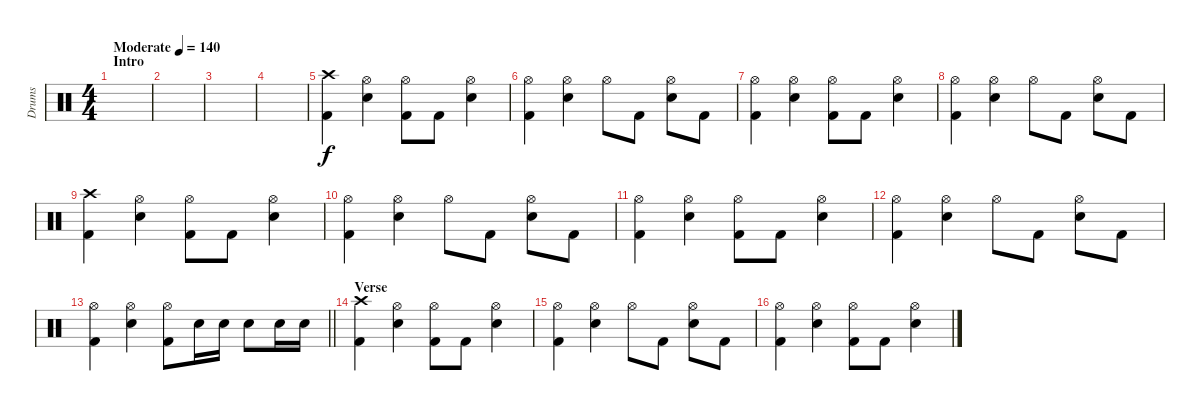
\track ("Drums" "Drums") {instrument percussion}
\staff {score}
\articulation defaults
\ts (4 4)
\section ("" "Intro ")
\tempo (140 "Moderate")
\clef neutral
\ks c
|
|
|
|
("Crash high (hit)" "Kick (hit) 2").4 ("Hi-Hat (open)" "Electric Snare (hit)").4 ("Hi-Hat (open)" "Kick (hit) 2").8 "Kick (hit) 2".8 ("Hi-Hat (open)" "Electric Snare (hit)").4 |
("Hi-Hat (open)" "Kick (hit) 2").4 ("Hi-Hat (open)" "Electric Snare (hit)").4 "Hi-Hat (open)".8 "Kick (hit) 2".8 ("Hi-Hat (open)" "Electric Snare (hit)").8 "Kick (hit) 2".8 |
("Hi-Hat (open)" "Kick (hit) 2").4 ("Hi-Hat (open)" "Electric Snare (hit)").4 ("Hi-Hat (open)" "Kick (hit) 2").8 "Kick (hit) 2".8 ("Hi-Hat (open)" "Electric Snare (hit)").4 |
("Hi-Hat (open)" "Kick (hit) 2").4 ("Hi-Hat (open)" "Electric Snare (hit)").4 "Hi-Hat (open)".8 "Kick (hit) 2".8 ("Hi-Hat (open)" "Electric Snare (hit)").8 "Kick (hit) 2".8 |
("Crash high (hit)" "Kick (hit) 2").4 ("Hi-Hat (open)" "Electric Snare (hit)").4 ("Hi-Hat (open)" "Kick (hit) 2").8 "Kick (hit) 2".8 ("Hi-Hat (open)" "Electric Snare (hit)").4 |
("Hi-Hat (open)" "Kick (hit) 2").4 ("Hi-Hat (open)" "Electric Snare (hit)").4 "Hi-Hat (open)".8 "Kick (hit) 2".8 ("Hi-Hat (open)" "Electric Snare (hit)").8 "Kick (hit) 2".8 |
("Hi-Hat (open)" "Kick (hit) 2").4 ("Hi-Hat (open)" "Electric Snare (hit)").4 ("Hi-Hat (open)" "Kick (hit) 2").8 "Kick (hit) 2".8 ("Hi-Hat (open)" "Electric Snare (hit)").4 |
("Hi-Hat (open)" "Kick (hit) 2").4 ("Hi-Hat (open)" "Electric Snare (hit)").4 "Hi-Hat (open)".8 "Kick (hit) 2".8 ("Hi-Hat (open)" "Electric Snare (hit)").8 "Kick (hit) 2".8 |
\barLineRight lightlight
("Hi-Hat (open)" "Kick (hit) 2").4 ("Hi-Hat (open)" "Electric Snare (hit)").4 ("Hi-Hat (open)" "Kick (hit) 2").8 "Electric Snare (hit)".16 "Electric Snare (hit)".16 "Electric Snare (hit)".8 "Electric Snare (hit)".16 "Electric Snare (hit)".16 |
\section ("" "Verse")
("Crash high (hit)" "Kick (hit) 2").4 ("Hi-Hat (open)" "Electric Snare (hit)").4 ("Hi-Hat (open)" "Kick (hit) 2").8 "Kick (hit) 2".8 ("Hi-Hat (open)" "Electric Snare (hit)").4 |
("Hi-Hat (open)" "Kick (hit) 2").4 ("Hi-Hat (open)" "Electric Snare (hit)").4 "Hi-Hat (open)".8 "Kick (hit) 2".8 ("Hi-Hat (open)" "Electric Snare (hit)").8 "Kick (hit) 2".8 |
("Hi-Hat (open)" "Kick (hit) 2").4 ("Hi-Hat (open)" "Electric Snare (hit)").4 ("Hi-Hat (open)" "Kick (hit) 2").8 "Kick (hit) 2".8 ("Hi-Hat (open)" "Electric Snare (hit)").4
